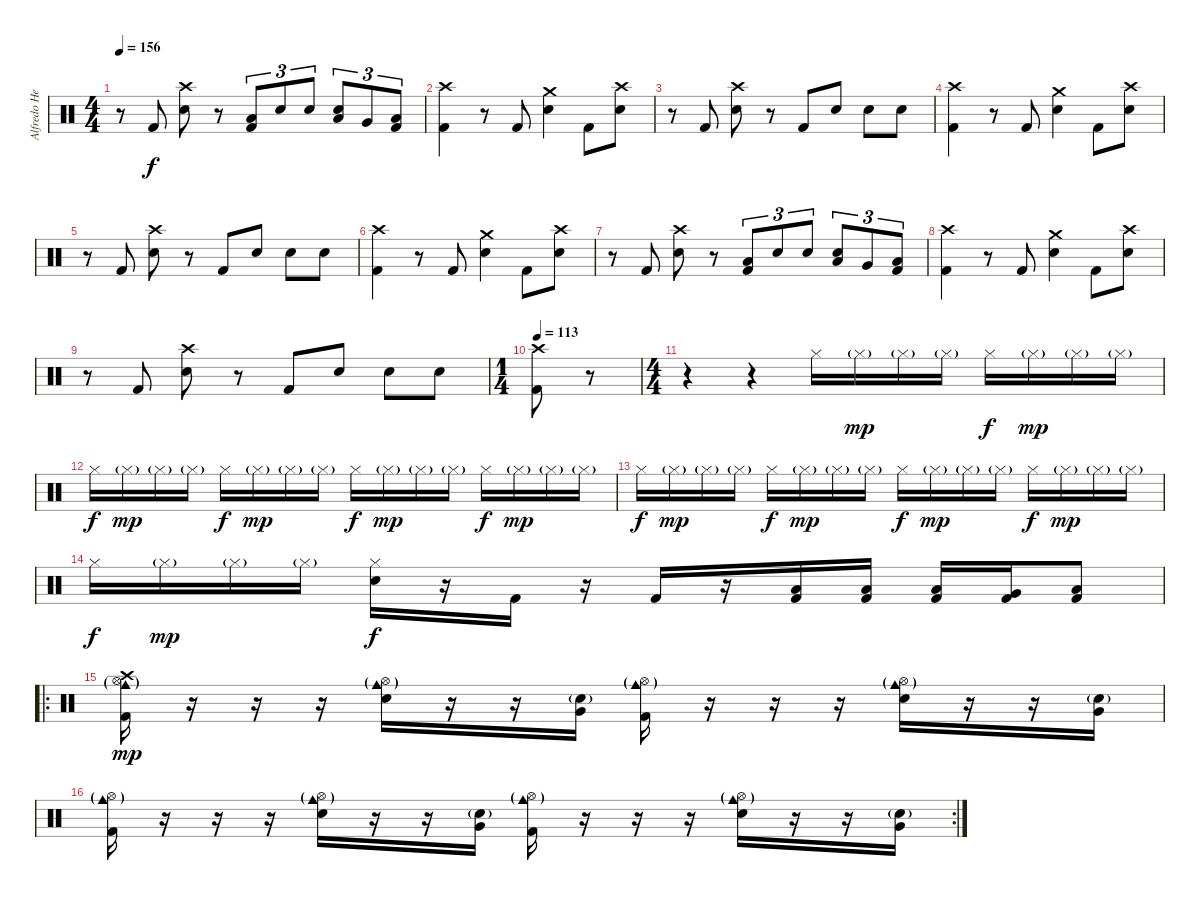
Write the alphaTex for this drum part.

\track ("Alfredo Hernández" "Alfredo He") {instrument percussion}
\staff {score}
\articulation defaults
\ts (4 4)
\tempo 156
\clef neutral
\ks c
r.8{dy f} "Kick (hit) 2".8 ("Crash high (hit)" "Electric Snare (hit)").8 r.8 ("Low Floor Tom (hit)" "Kick (hit) 2").8{tu (3 2)} "Electric Snare (hit)".8{tu (3 2)} "Electric Snare (hit)".8{tu (3 2)} ("Electric Snare (hit)" "Low Tom (hit)").8{tu (3 2)} "Very Low Tom (hit)".8{tu (3 2)} ("Low Floor Tom (hit)" "Kick (hit) 2").8{tu (3 2)} |
("Crash high (hit)" "Kick (hit) 2").4 r.8 "Kick (hit) 2".8 ("Electric Snare (hit)" "Crash medium (hit)").4 "Kick (hit) 2".8 ("Electric Snare (hit)" "Crash high (hit)").8 |
r.8 "Kick (hit) 2".8 ("Crash high (hit)" "Electric Snare (hit)").8 r.8 "Kick (hit) 2".8 "Electric Snare (hit)".8 "Electric Snare (hit)".8 "Electric Snare (hit)".8 |
("Crash high (hit)" "Kick (hit) 2").4 r.8 "Kick (hit) 2".8 ("Electric Snare (hit)" "Crash medium (hit)").4 "Kick (hit) 2".8 ("Electric Snare (hit)" "Crash high (hit)").8 |
r.8 "Kick (hit) 2".8 ("Crash high (hit)" "Electric Snare (hit)").8 r.8 "Kick (hit) 2".8 "Electric Snare (hit)".8 "Electric Snare (hit)".8 "Electric Snare (hit)".8 |
("Crash high (hit)" "Kick (hit) 2").4 r.8 "Kick (hit) 2".8 ("Electric Snare (hit)" "Crash medium (hit)").4 "Kick (hit) 2".8 ("Electric Snare (hit)" "Crash high (hit)").8 |
r.8 "Kick (hit) 2".8 ("Crash high (hit)" "Electric Snare (hit)").8 r.8 ("Low Floor Tom (hit)" "Kick (hit) 2").8{tu (3 2)} "Electric Snare (hit)".8{tu (3 2)} "Electric Snare (hit)".8{tu (3 2)} ("Electric Snare (hit)" "Low Tom (hit)").8{tu (3 2)} "Very Low Tom (hit)".8{tu (3 2)} ("Low Floor Tom (hit)" "Kick (hit) 2").8{tu (3 2)} |
("Crash high (hit)" "Kick (hit) 2").4 r.8 "Kick (hit) 2".8 ("Electric Snare (hit)" "Crash medium (hit)").4 "Kick (hit) 2".8 ("Electric Snare (hit)" "Crash high (hit)").8 |
r.8 "Kick (hit) 2".8 ("Crash high (hit)" "Electric Snare (hit)").8 r.8 "Kick (hit) 2".8 "Electric Snare (hit)".8 "Electric Snare (hit)".8 "Electric Snare (hit)".8 |
\ts (1 4)
\tempo 113
("Crash high (hit)" "Kick (hit) 2").8 r.8 |
\ts (4 4)
r.4 r.4{volume 0} "Hi-Hat (closed)".16{volume 14} "Hi-Hat (closed)"{g}.16{dy mp} "Hi-Hat (closed)"{g}.16 "Hi-Hat (closed)"{g}.16 "Hi-Hat (closed)".16{dy f} "Hi-Hat (closed)"{g}.16{dy mp} "Hi-Hat (closed)"{g}.16 "Hi-Hat (closed)"{g}.16 |
"Hi-Hat (closed)".16{dy f} "Hi-Hat (closed)"{g}.16{dy mp} "Hi-Hat (closed)"{g}.16 "Hi-Hat (closed)"{g}.16 "Hi-Hat (closed)".16{dy f} "Hi-Hat (closed)"{g}.16{dy mp} "Hi-Hat (closed)"{g}.16 "Hi-Hat (closed)"{g}.16 "Hi-Hat (closed)".16{dy f} "Hi-Hat (closed)"{g}.16{dy mp} "Hi-Hat (closed)"{g}.16 "Hi-Hat (closed)"{g}.16 "Hi-Hat (closed)".16{dy f} "Hi-Hat (closed)"{g}.16{dy mp} "Hi-Hat (closed)"{g}.16 "Hi-Hat (closed)"{g}.16 |
"Hi-Hat (closed)".16{dy f} "Hi-Hat (closed)"{g}.16{dy mp} "Hi-Hat (closed)"{g}.16 "Hi-Hat (closed)"{g}.16 "Hi-Hat (closed)".16{dy f} "Hi-Hat (closed)"{g}.16{dy mp} "Hi-Hat (closed)"{g}.16 "Hi-Hat (closed)"{g}.16 "Hi-Hat (closed)".16{dy f} "Hi-Hat (closed)"{g}.16{dy mp} "Hi-Hat (closed)"{g}.16 "Hi-Hat (closed)"{g}.16 "Hi-Hat (closed)".16{dy f} "Hi-Hat (closed)"{g}.16{dy mp} "Hi-Hat (closed)"{g}.16 "Hi-Hat (closed)"{g}.16 |
"Hi-Hat (closed)".16{dy f} "Hi-Hat (closed)"{g}.16{dy mp} "Hi-Hat (closed)"{g}.16 "Hi-Hat (closed)"{g}.16 ("Electric Snare (hit)" "Hi-Hat (closed)").16{dy f} r.16 "Kick (hit) 2".16 r.16 "Kick (hit) 2".16 r.16 ("Low Tom (hit)" "Kick (hit) 2").16 ("Low Tom (hit)" "Kick (hit) 2").16 ("Low Tom (hit)" "Kick (hit) 2").16 ("Very Low Tom (hit)" "Kick (hit) 2").16 ("Low Floor Tom (hit)" "Kick (hit) 2").8 |
\ro
("Crash high (hit)" "Cowbell medium (hit)"{g} "Hi-Hat (open)"{g} "Kick (hit) 2").16{dy mp} r.16 r.16 r.16 ("Electric Snare (hit)" "Cowbell medium (hit)"{g} "Hi-Hat (open)"{g}).16 r.16 r.16 ("Electric Snare (hit)"{g} "Very Low Tom (hit)").16 ("Cowbell medium (hit)"{g} "Hi-Hat (open)"{g} "Kick (hit) 2").16 r.16 r.16 r.16 ("Electric Snare (hit)" "Cowbell medium (hit)"{g} "Hi-Hat (open)"{g}).16 r.16 r.16 ("Electric Snare (hit)"{g} "Very Low Tom (hit)").16 |
\rc 2
("Cowbell medium (hit)"{g} "Hi-Hat (open)"{g} "Kick (hit) 2").16 r.16 r.16 r.16 ("Electric Snare (hit)" "Cowbell medium (hit)"{g} "Hi-Hat (open)"{g}).16 r.16 r.16 ("Electric Snare (hit)"{g} "Very Low Tom (hit)").16 ("Cowbell medium (hit)"{g} "Hi-Hat (open)"{g} "Kick (hit) 2").16 r.16 r.16 r.16 ("Electric Snare (hit)" "Cowbell medium (hit)"{g} "Hi-Hat (open)"{g}).16 r.16 r.16 ("Electric Snare (hit)"{g} "Very Low Tom (hit)").16
